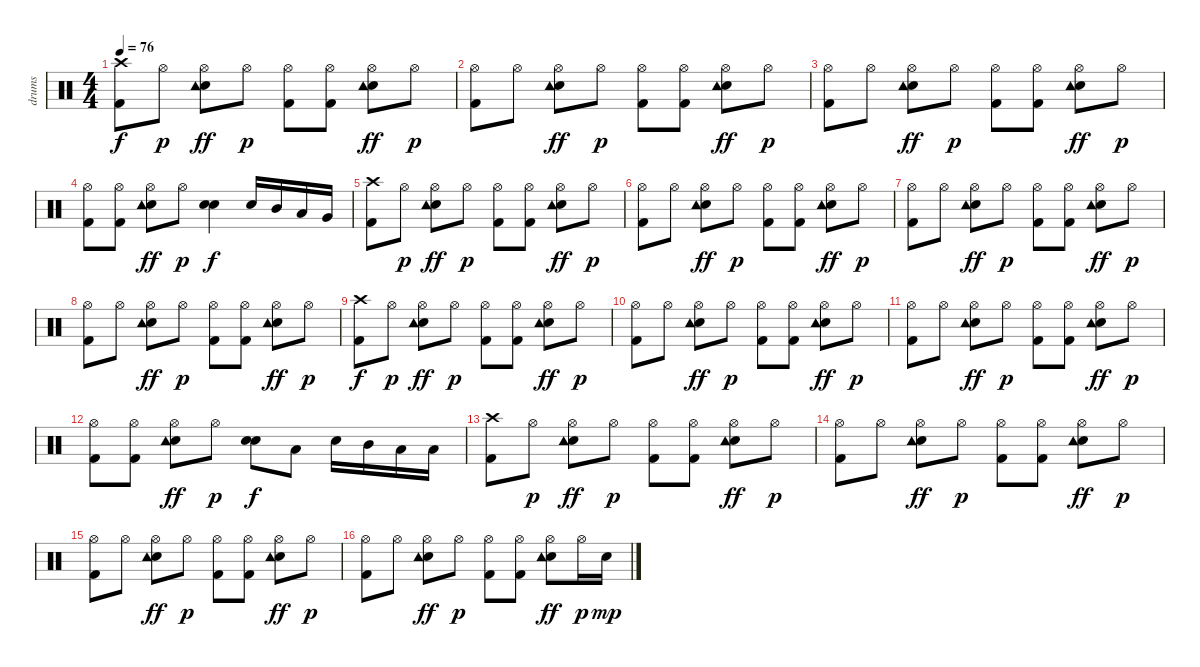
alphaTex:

\track ("drums" "drums") {instrument percussion}
\staff {score}
\articulation defaults
\ts (4 4)
\tempo 76
\clef neutral
\ks c
("Crash high (hit)" "Kick (hit) 2").8{dy f} "Hi-Hat (open)".8{dy p} ("Hi-Hat (open)" "Snare (hit) 2" "Tambourine (hit)").8{dy ff} "Hi-Hat (open)".8{dy p} ("Hi-Hat (open)" "Kick (hit) 2").8 ("Hi-Hat (open)" "Kick (hit) 2").8 ("Hi-Hat (open)" "Snare (hit) 2" "Tambourine (hit)").8{dy ff} "Hi-Hat (open)".8{dy p} |
("Hi-Hat (open)" "Kick (hit) 2").8 "Hi-Hat (open)".8 ("Hi-Hat (open)" "Snare (hit) 2" "Tambourine (hit)").8{dy ff} "Hi-Hat (open)".8{dy p} ("Hi-Hat (open)" "Kick (hit) 2").8 ("Hi-Hat (open)" "Kick (hit) 2").8 ("Hi-Hat (open)" "Snare (hit) 2" "Tambourine (hit)").8{dy ff} "Hi-Hat (open)".8{dy p} |
("Hi-Hat (open)" "Kick (hit) 2").8 "Hi-Hat (open)".8 ("Hi-Hat (open)" "Snare (hit) 2" "Tambourine (hit)").8{dy ff} "Hi-Hat (open)".8{dy p} ("Hi-Hat (open)" "Kick (hit) 2").8 ("Hi-Hat (open)" "Kick (hit) 2").8 ("Hi-Hat (open)" "Snare (hit) 2" "Tambourine (hit)").8{dy ff} "Hi-Hat (open)".8{dy p} |
("Hi-Hat (open)" "Kick (hit) 2").8 ("Hi-Hat (open)" "Kick (hit) 2").8 ("Hi-Hat (open)" "Snare (hit) 2" "Tambourine (hit)").8{dy ff} "Hi-Hat (open)".8{dy p} ("Snare (hit) 2" "Snare (hit) 2").4{dy f} "Snare (hit) 2".16 "Mid Tom (hit)".16 "Low Tom (hit)".16 "Very Low Tom (hit)".16 |
("Crash high (hit)" "Kick (hit) 2").8 "Hi-Hat (open)".8{dy p} ("Hi-Hat (open)" "Snare (hit) 2" "Tambourine (hit)").8{dy ff} "Hi-Hat (open)".8{dy p} ("Hi-Hat (open)" "Kick (hit) 2").8 ("Hi-Hat (open)" "Kick (hit) 2").8 ("Hi-Hat (open)" "Snare (hit) 2" "Tambourine (hit)").8{dy ff} "Hi-Hat (open)".8{dy p} |
("Hi-Hat (open)" "Kick (hit) 2").8 "Hi-Hat (open)".8 ("Hi-Hat (open)" "Snare (hit) 2" "Tambourine (hit)").8{dy ff} "Hi-Hat (open)".8{dy p} ("Hi-Hat (open)" "Kick (hit) 2").8 ("Hi-Hat (open)" "Kick (hit) 2").8 ("Hi-Hat (open)" "Snare (hit) 2" "Tambourine (hit)").8{dy ff} "Hi-Hat (open)".8{dy p} |
("Hi-Hat (open)" "Kick (hit) 2").8 "Hi-Hat (open)".8 ("Hi-Hat (open)" "Snare (hit) 2" "Tambourine (hit)").8{dy ff} "Hi-Hat (open)".8{dy p} ("Hi-Hat (open)" "Kick (hit) 2").8 ("Hi-Hat (open)" "Kick (hit) 2").8 ("Hi-Hat (open)" "Snare (hit) 2" "Tambourine (hit)").8{dy ff} "Hi-Hat (open)".8{dy p} |
("Hi-Hat (open)" "Kick (hit) 2").8 "Hi-Hat (open)".8 ("Hi-Hat (open)" "Snare (hit) 2" "Tambourine (hit)").8{dy ff} "Hi-Hat (open)".8{dy p} ("Hi-Hat (open)" "Kick (hit) 2").8 ("Hi-Hat (open)" "Kick (hit) 2").8 ("Hi-Hat (open)" "Snare (hit) 2" "Tambourine (hit)").8{dy ff} "Hi-Hat (open)".8{dy p} |
("Crash high (hit)" "Kick (hit) 2").8{dy f} "Hi-Hat (open)".8{dy p} ("Hi-Hat (open)" "Snare (hit) 2" "Tambourine (hit)").8{dy ff} "Hi-Hat (open)".8{dy p} ("Hi-Hat (open)" "Kick (hit) 2").8 ("Hi-Hat (open)" "Kick (hit) 2").8 ("Hi-Hat (open)" "Snare (hit) 2" "Tambourine (hit)").8{dy ff} "Hi-Hat (open)".8{dy p} |
("Hi-Hat (open)" "Kick (hit) 2").8 "Hi-Hat (open)".8 ("Hi-Hat (open)" "Snare (hit) 2" "Tambourine (hit)").8{dy ff} "Hi-Hat (open)".8{dy p} ("Hi-Hat (open)" "Kick (hit) 2").8 ("Hi-Hat (open)" "Kick (hit) 2").8 ("Hi-Hat (open)" "Snare (hit) 2" "Tambourine (hit)").8{dy ff} "Hi-Hat (open)".8{dy p} |
("Hi-Hat (open)" "Kick (hit) 2").8 "Hi-Hat (open)".8 ("Hi-Hat (open)" "Snare (hit) 2" "Tambourine (hit)").8{dy ff} "Hi-Hat (open)".8{dy p} ("Hi-Hat (open)" "Kick (hit) 2").8 ("Hi-Hat (open)" "Kick (hit) 2").8 ("Hi-Hat (open)" "Snare (hit) 2" "Tambourine (hit)").8{dy ff} "Hi-Hat (open)".8{dy p} |
("Hi-Hat (open)" "Kick (hit) 2").8 ("Hi-Hat (open)" "Kick (hit) 2").8 ("Hi-Hat (open)" "Snare (hit) 2" "Tambourine (hit)").8{dy ff} "Hi-Hat (open)".8{dy p} ("Snare (hit) 2" "Snare (hit) 2").8{dy f} "Low Tom (hit)".8 "Snare (hit) 2".16 "Mid Tom (hit)".16 "Low Tom (hit)".16 "Low Floor Tom (hit)".16 |
("Crash high (hit)" "Kick (hit) 2").8 "Hi-Hat (open)".8{dy p} ("Hi-Hat (open)" "Snare (hit) 2" "Tambourine (hit)").8{dy ff} "Hi-Hat (open)".8{dy p} ("Hi-Hat (open)" "Kick (hit) 2").8 ("Hi-Hat (open)" "Kick (hit) 2").8 ("Hi-Hat (open)" "Snare (hit) 2" "Tambourine (hit)").8{dy ff} "Hi-Hat (open)".8{dy p} |
("Hi-Hat (open)" "Kick (hit) 2").8 "Hi-Hat (open)".8 ("Hi-Hat (open)" "Snare (hit) 2" "Tambourine (hit)").8{dy ff} "Hi-Hat (open)".8{dy p} ("Hi-Hat (open)" "Kick (hit) 2").8 ("Hi-Hat (open)" "Kick (hit) 2").8 ("Hi-Hat (open)" "Snare (hit) 2" "Tambourine (hit)").8{dy ff} "Hi-Hat (open)".8{dy p} |
("Hi-Hat (open)" "Kick (hit) 2").8 "Hi-Hat (open)".8 ("Hi-Hat (open)" "Snare (hit) 2" "Tambourine (hit)").8{dy ff} "Hi-Hat (open)".8{dy p} ("Hi-Hat (open)" "Kick (hit) 2").8 ("Hi-Hat (open)" "Kick (hit) 2").8 ("Hi-Hat (open)" "Snare (hit) 2" "Tambourine (hit)").8{dy ff} "Hi-Hat (open)".8{dy p} |
("Hi-Hat (open)" "Kick (hit) 2").8 "Hi-Hat (open)".8 ("Hi-Hat (open)" "Snare (hit) 2" "Tambourine (hit)").8{dy ff} "Hi-Hat (open)".8{dy p} ("Hi-Hat (open)" "Kick (hit) 2").8 ("Hi-Hat (open)" "Kick (hit) 2").8 ("Hi-Hat (open)" "Snare (hit) 2" "Tambourine (hit)").8{dy ff} "Hi-Hat (open)".16{dy p} "Snare (hit) 2".16{dy mp}
